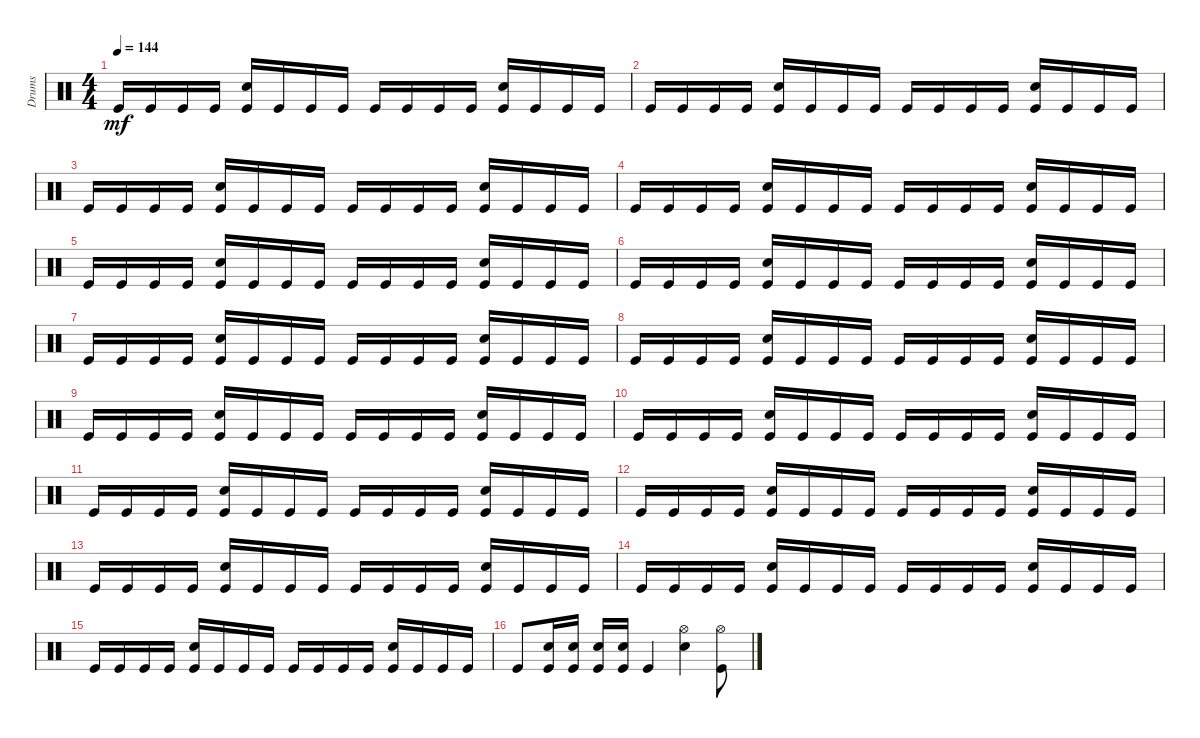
\track ("Drums" "Drums") {instrument percussion}
\staff {score}
\articulation defaults
\ts (4 4)
\tempo 144
\clef neutral
\ks c "Kick (hit)".16{dy mf} "Kick (hit)".16 "Kick (hit)".16 "Kick (hit)".16
("Kick (hit)" "Snare (hit) 2").16 "Kick (hit)".16 "Kick (hit)".16 "Kick (hit)".16 "Kick (hit)".16 "Kick (hit)".16 "Kick (hit)".16 "Kick (hit)".16 ("Kick (hit)" "Snare (hit) 2").16 "Kick (hit)".16 "Kick (hit)".16 "Kick (hit)".16 |
"Kick (hit)".16 "Kick (hit)".16 "Kick (hit)".16 "Kick (hit)".16 ("Kick (hit)" "Snare (hit) 2").16 "Kick (hit)".16 "Kick (hit)".16 "Kick (hit)".16 "Kick (hit)".16 "Kick (hit)".16 "Kick (hit)".16 "Kick (hit)".16 ("Kick (hit)" "Snare (hit) 2").16 "Kick (hit)".16 "Kick (hit)".16 "Kick (hit)".16 |
"Kick (hit)".16 "Kick (hit)".16 "Kick (hit)".16 "Kick (hit)".16 ("Kick (hit)" "Snare (hit) 2").16 "Kick (hit)".16 "Kick (hit)".16 "Kick (hit)".16 "Kick (hit)".16 "Kick (hit)".16 "Kick (hit)".16 "Kick (hit)".16 ("Kick (hit)" "Snare (hit) 2").16 "Kick (hit)".16 "Kick (hit)".16 "Kick (hit)".16 |
"Kick (hit)".16 "Kick (hit)".16 "Kick (hit)".16 "Kick (hit)".16 ("Kick (hit)" "Snare (hit) 2").16 "Kick (hit)".16 "Kick (hit)".16 "Kick (hit)".16 "Kick (hit)".16 "Kick (hit)".16 "Kick (hit)".16 "Kick (hit)".16 ("Kick (hit)" "Snare (hit) 2").16 "Kick (hit)".16 "Kick (hit)".16 "Kick (hit)".16 |
"Kick (hit)".16 "Kick (hit)".16 "Kick (hit)".16 "Kick (hit)".16 ("Kick (hit)" "Snare (hit) 2").16 "Kick (hit)".16 "Kick (hit)".16 "Kick (hit)".16 "Kick (hit)".16 "Kick (hit)".16 "Kick (hit)".16 "Kick (hit)".16 ("Kick (hit)" "Snare (hit) 2").16 "Kick (hit)".16 "Kick (hit)".16 "Kick (hit)".16 |
"Kick (hit)".16 "Kick (hit)".16 "Kick (hit)".16 "Kick (hit)".16 ("Kick (hit)" "Snare (hit) 2").16 "Kick (hit)".16 "Kick (hit)".16 "Kick (hit)".16 "Kick (hit)".16 "Kick (hit)".16 "Kick (hit)".16 "Kick (hit)".16 ("Kick (hit)" "Snare (hit) 2").16 "Kick (hit)".16 "Kick (hit)".16 "Kick (hit)".16 |
"Kick (hit)".16 "Kick (hit)".16 "Kick (hit)".16 "Kick (hit)".16 ("Kick (hit)" "Snare (hit) 2").16 "Kick (hit)".16 "Kick (hit)".16 "Kick (hit)".16 "Kick (hit)".16 "Kick (hit)".16 "Kick (hit)".16 "Kick (hit)".16 ("Kick (hit)" "Snare (hit) 2").16 "Kick (hit)".16 "Kick (hit)".16 "Kick (hit)".16 |
"Kick (hit)".16 "Kick (hit)".16 "Kick (hit)".16 "Kick (hit)".16 ("Kick (hit)" "Snare (hit) 2").16 "Kick (hit)".16 "Kick (hit)".16 "Kick (hit)".16 "Kick (hit)".16 "Kick (hit)".16 "Kick (hit)".16 "Kick (hit)".16 ("Kick (hit)" "Snare (hit) 2").16 "Kick (hit)".16 "Kick (hit)".16 "Kick (hit)".16 |
"Kick (hit)".16 "Kick (hit)".16 "Kick (hit)".16 "Kick (hit)".16 ("Kick (hit)" "Snare (hit) 2").16 "Kick (hit)".16 "Kick (hit)".16 "Kick (hit)".16 "Kick (hit)".16 "Kick (hit)".16 "Kick (hit)".16 "Kick (hit)".16 ("Kick (hit)" "Snare (hit) 2").16 "Kick (hit)".16 "Kick (hit)".16 "Kick (hit)".16 |
"Kick (hit)".16 "Kick (hit)".16 "Kick (hit)".16 "Kick (hit)".16 ("Kick (hit)" "Snare (hit) 2").16 "Kick (hit)".16 "Kick (hit)".16 "Kick (hit)".16 "Kick (hit)".16 "Kick (hit)".16 "Kick (hit)".16 "Kick (hit)".16 ("Kick (hit)" "Snare (hit) 2").16 "Kick (hit)".16 "Kick (hit)".16 "Kick (hit)".16 |
"Kick (hit)".16 "Kick (hit)".16 "Kick (hit)".16 "Kick (hit)".16 ("Kick (hit)" "Snare (hit) 2").16 "Kick (hit)".16 "Kick (hit)".16 "Kick (hit)".16 "Kick (hit)".16 "Kick (hit)".16 "Kick (hit)".16 "Kick (hit)".16 ("Kick (hit)" "Snare (hit) 2").16 "Kick (hit)".16 "Kick (hit)".16 "Kick (hit)".16 |
"Kick (hit)".16 "Kick (hit)".16 "Kick (hit)".16 "Kick (hit)".16 ("Kick (hit)" "Snare (hit) 2").16 "Kick (hit)".16 "Kick (hit)".16 "Kick (hit)".16 "Kick (hit)".16 "Kick (hit)".16 "Kick (hit)".16 "Kick (hit)".16 ("Kick (hit)" "Snare (hit) 2").16 "Kick (hit)".16 "Kick (hit)".16 "Kick (hit)".16 |
"Kick (hit)".16 "Kick (hit)".16 "Kick (hit)".16 "Kick (hit)".16 ("Kick (hit)" "Snare (hit) 2").16 "Kick (hit)".16 "Kick (hit)".16 "Kick (hit)".16 "Kick (hit)".16 "Kick (hit)".16 "Kick (hit)".16 "Kick (hit)".16 ("Kick (hit)" "Snare (hit) 2").16 "Kick (hit)".16 "Kick (hit)".16 "Kick (hit)".16 |
"Kick (hit)".16 "Kick (hit)".16 "Kick (hit)".16 "Kick (hit)".16 ("Kick (hit)" "Snare (hit) 2").16 "Kick (hit)".16 "Kick (hit)".16 "Kick (hit)".16 "Kick (hit)".16 "Kick (hit)".16 "Kick (hit)".16 "Kick (hit)".16 ("Kick (hit)" "Snare (hit) 2").16 "Kick (hit)".16 "Kick (hit)".16 "Kick (hit)".16 |
"Kick (hit)".16 "Kick (hit)".16 "Kick (hit)".16 "Kick (hit)".16 ("Kick (hit)" "Snare (hit) 2").16 "Kick (hit)".16 "Kick (hit)".16 "Kick (hit)".16 "Kick (hit)".16 "Kick (hit)".16 "Kick (hit)".16 "Kick (hit)".16 ("Kick (hit)" "Snare (hit) 2").16 "Kick (hit)".16 "Kick (hit)".16 "Kick (hit)".16 |
"Kick (hit)".8 ("Kick (hit)" "Snare (hit) 2").16 ("Kick (hit)" "Snare (hit) 2").16 ("Kick (hit)" "Snare (hit) 2").16 ("Kick (hit)" "Snare (hit) 2").16 "Kick (hit)".4 ("Snare (hit) 2" "Hi-Hat (open)").4 ("Kick (hit)" "Hi-Hat (open)").8
